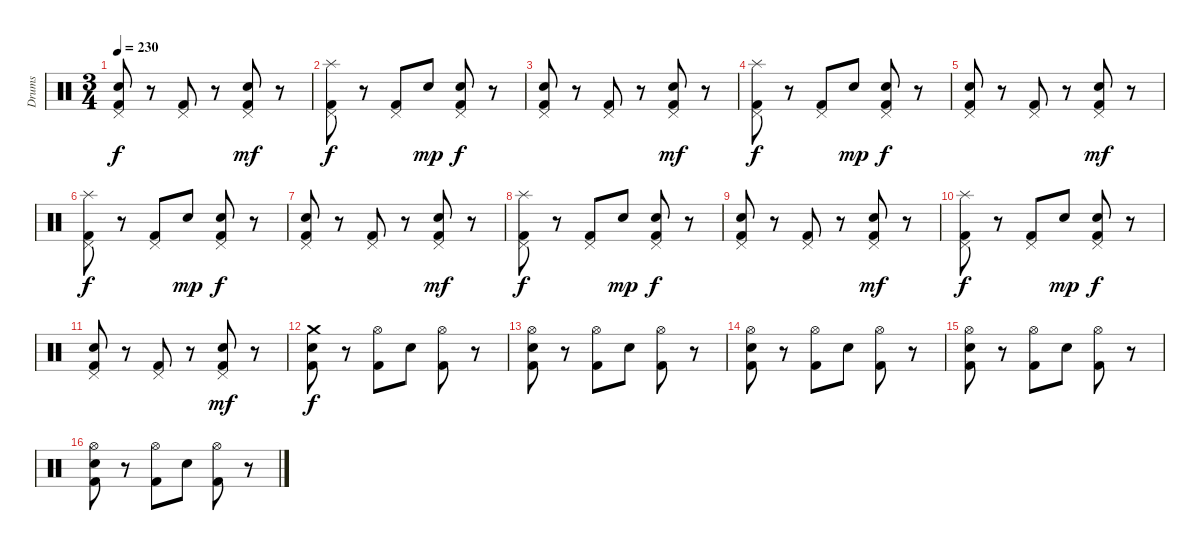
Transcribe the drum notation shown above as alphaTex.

\track ("Drums" "Drums") {instrument percussion}
\staff {score}
\articulation defaults
\ts (3 4)
\tempo 230
\clef neutral
\ks c
("Pedal Hi-Hat (hit)" "Electric Snare (hit)" "Kick (hit) 2").8{dy f} r.8 ("Pedal Hi-Hat (hit)" "Kick (hit) 2").8 r.8 ("Pedal Hi-Hat (hit)" "Electric Snare (hit)" "Kick (hit) 2").8{dy mf} r.8 |
("Splash (hit)" "Pedal Hi-Hat (hit)" "Kick (hit) 2").8{dy f} r.8 ("Pedal Hi-Hat (hit)" "Kick (hit) 2").8 "Electric Snare (hit)".8{dy mp} ("Pedal Hi-Hat (hit)" "Electric Snare (hit)" "Kick (hit) 2").8{dy f} r.8 |
("Pedal Hi-Hat (hit)" "Electric Snare (hit)" "Kick (hit) 2").8 r.8 ("Pedal Hi-Hat (hit)" "Kick (hit) 2").8 r.8 ("Pedal Hi-Hat (hit)" "Electric Snare (hit)" "Kick (hit) 2").8{dy mf} r.8 |
("Splash (hit)" "Pedal Hi-Hat (hit)" "Kick (hit) 2").8{dy f} r.8 ("Pedal Hi-Hat (hit)" "Kick (hit) 2").8 "Electric Snare (hit)".8{dy mp} ("Pedal Hi-Hat (hit)" "Electric Snare (hit)" "Kick (hit) 2").8{dy f} r.8 |
("Pedal Hi-Hat (hit)" "Electric Snare (hit)" "Kick (hit) 2").8 r.8 ("Pedal Hi-Hat (hit)" "Kick (hit) 2").8 r.8 ("Pedal Hi-Hat (hit)" "Electric Snare (hit)" "Kick (hit) 2").8{dy mf} r.8 |
("Splash (hit)" "Pedal Hi-Hat (hit)" "Kick (hit) 2").8{dy f} r.8 ("Pedal Hi-Hat (hit)" "Kick (hit) 2").8 "Electric Snare (hit)".8{dy mp} ("Pedal Hi-Hat (hit)" "Electric Snare (hit)" "Kick (hit) 2").8{dy f} r.8 |
("Pedal Hi-Hat (hit)" "Electric Snare (hit)" "Kick (hit) 2").8 r.8 ("Pedal Hi-Hat (hit)" "Kick (hit) 2").8 r.8 ("Pedal Hi-Hat (hit)" "Electric Snare (hit)" "Kick (hit) 2").8{dy mf} r.8 |
("Splash (hit)" "Pedal Hi-Hat (hit)" "Kick (hit) 2").8{dy f} r.8 ("Pedal Hi-Hat (hit)" "Kick (hit) 2").8 "Electric Snare (hit)".8{dy mp} ("Pedal Hi-Hat (hit)" "Electric Snare (hit)" "Kick (hit) 2").8{dy f} r.8 |
("Pedal Hi-Hat (hit)" "Electric Snare (hit)" "Kick (hit) 2").8 r.8 ("Pedal Hi-Hat (hit)" "Kick (hit) 2").8 r.8 ("Pedal Hi-Hat (hit)" "Electric Snare (hit)" "Kick (hit) 2").8{dy mf} r.8 |
("Splash (hit)" "Pedal Hi-Hat (hit)" "Kick (hit) 2").8{dy f} r.8 ("Pedal Hi-Hat (hit)" "Kick (hit) 2").8 "Electric Snare (hit)".8{dy mp} ("Pedal Hi-Hat (hit)" "Electric Snare (hit)" "Kick (hit) 2").8{dy f} r.8 |
("Pedal Hi-Hat (hit)" "Electric Snare (hit)" "Kick (hit) 2").8 r.8 ("Pedal Hi-Hat (hit)" "Kick (hit) 2").8 r.8 ("Pedal Hi-Hat (hit)" "Electric Snare (hit)" "Kick (hit) 2").8{dy mf} r.8 |
("Crash medium (hit)" "Electric Snare (hit)" "Kick (hit) 2").8{dy f} r.8 ("Hi-Hat (open)" "Kick (hit) 2").8 "Electric Snare (hit)".8 ("Hi-Hat (open)" "Kick (hit) 2").8 r.8 |
("Hi-Hat (open)" "Electric Snare (hit)" "Kick (hit) 2").8 r.8 ("Hi-Hat (open)" "Kick (hit) 2").8 "Electric Snare (hit)".8 ("Hi-Hat (open)" "Kick (hit) 2").8 r.8 |
("Hi-Hat (open)" "Electric Snare (hit)" "Kick (hit) 2").8 r.8 ("Hi-Hat (open)" "Kick (hit) 2").8 "Electric Snare (hit)".8 ("Hi-Hat (open)" "Kick (hit) 2").8 r.8 |
("Hi-Hat (open)" "Electric Snare (hit)" "Kick (hit) 2").8 r.8 ("Hi-Hat (open)" "Kick (hit) 2").8 "Electric Snare (hit)".8 ("Hi-Hat (open)" "Kick (hit) 2").8 r.8 |
("Hi-Hat (open)" "Electric Snare (hit)" "Kick (hit) 2").8 r.8 ("Hi-Hat (open)" "Kick (hit) 2").8 "Electric Snare (hit)".8 ("Hi-Hat (open)" "Kick (hit) 2").8 r.8
